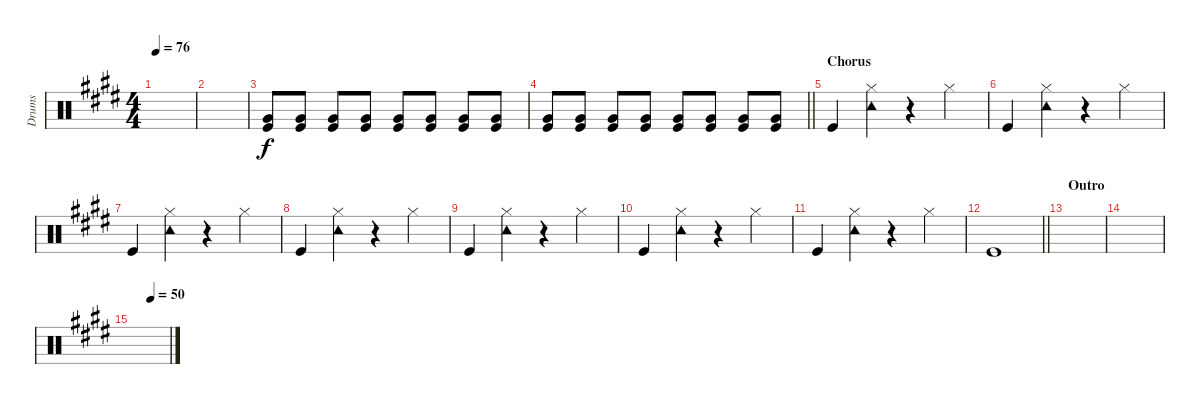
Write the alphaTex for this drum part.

\track ("Drums" "Drums") {instrument percussion}
\staff {score}
\articulation defaults
\ts (4 4)
\tempo 76
\clef neutral
\ks e
|
|
("Very Low Tom (hit)" "Kick (hit)").8{volume 14} ("Very Low Tom (hit)" "Kick (hit)").8 ("Very Low Tom (hit)" "Kick (hit)").8 ("Very Low Tom (hit)" "Kick (hit)").8 ("Very Low Tom (hit)" "Kick (hit)").8 ("Very Low Tom (hit)" "Kick (hit)").8 ("Very Low Tom (hit)" "Kick (hit)").8 ("Very Low Tom (hit)" "Kick (hit)").8 |
\barLineRight lightlight
("Very Low Tom (hit)" "Kick (hit)").8 ("Very Low Tom (hit)" "Kick (hit)").8 ("Very Low Tom (hit)" "Kick (hit)").8 ("Very Low Tom (hit)" "Kick (hit)").8 ("Very Low Tom (hit)" "Kick (hit)").8 ("Very Low Tom (hit)" "Kick (hit)").8 ("Very Low Tom (hit)" "Kick (hit)").8 ("Very Low Tom (hit)" "Kick (hit)").8 |
\section ("" "Chorus")
"Kick (hit)".4 ("Hi-Hat (closed)" "Tambourine (hit)").4 r.4 "Hi-Hat (closed)".4 |
"Kick (hit)".4 ("Hi-Hat (closed)" "Tambourine (hit)").4 r.4 "Hi-Hat (closed)".4 |
"Kick (hit)".4 ("Hi-Hat (closed)" "Tambourine (hit)").4 r.4 "Hi-Hat (closed)".4 |
"Kick (hit)".4 ("Hi-Hat (closed)" "Tambourine (hit)").4 r.4 "Hi-Hat (closed)".4 |
"Kick (hit)".4 ("Hi-Hat (closed)" "Tambourine (hit)").4 r.4 "Hi-Hat (closed)".4 |
"Kick (hit)".4 ("Hi-Hat (closed)" "Tambourine (hit)").4 r.4 "Hi-Hat (closed)".4 |
"Kick (hit)".4 ("Hi-Hat (closed)" "Tambourine (hit)").4 r.4 "Hi-Hat (closed)".4 |
\barLineRight lightlight "Kick (hit)".1
|
\section ("" "Outro")
|
|
\tempo (50 0.5)
